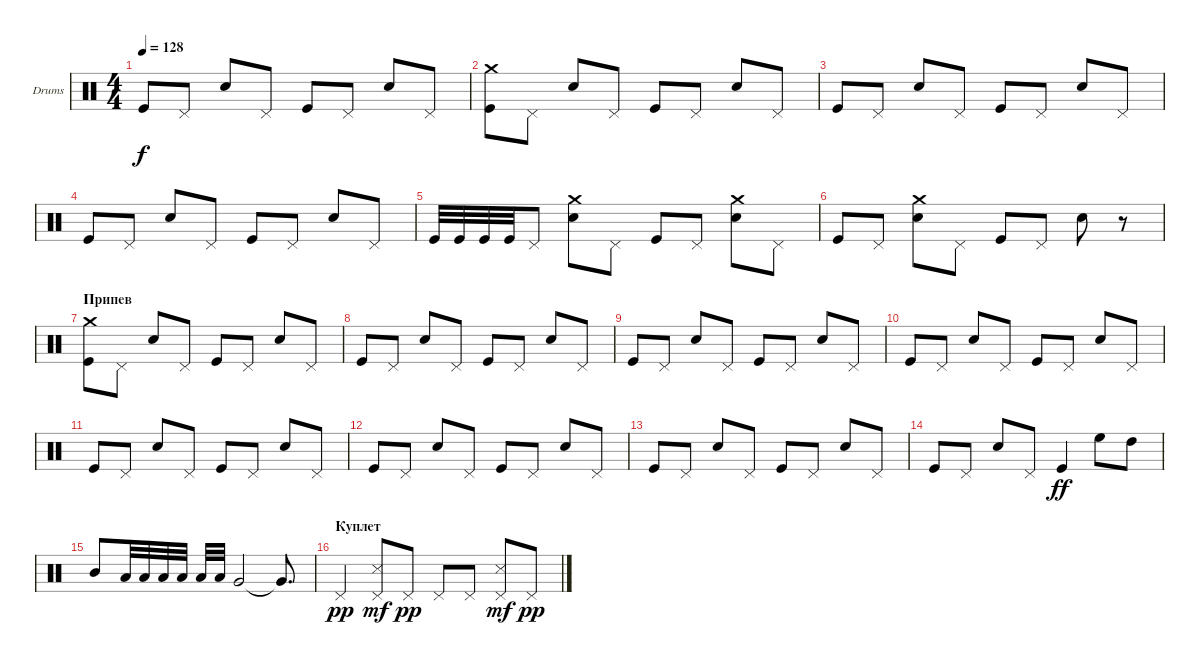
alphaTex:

\defaultSystemsLayout 4
\bracketExtendMode groupsimilarinstruments
\firstSystemTrackNameOrientation horizontal
\otherSystemsTrackNameOrientation horizontal
\track ("Е. Кулаков" "Drums") {instrument percussion}
\staff {score}
\articulation defaults
\ts (4 4)
\tempo 128
\clef neutral
\ks c "Kick (hit)".8{dy f} "Pedal Hi-Hat (hit)".8 "Snare (hit) 2".8 "Pedal Hi-Hat (hit)".8 "Kick (hit)".8 "Pedal Hi-Hat (hit)".8 "Snare (hit) 2".8 "Pedal Hi-Hat (hit)".8
|
("Kick (hit)" "Crash medium (hit)").8 "Pedal Hi-Hat (hit)".8 "Snare (hit) 2".8 "Pedal Hi-Hat (hit)".8 "Kick (hit)".8 "Pedal Hi-Hat (hit)".8 "Snare (hit) 2".8 "Pedal Hi-Hat (hit)".8 |
"Kick (hit)".8 "Pedal Hi-Hat (hit)".8 "Snare (hit) 2".8 "Pedal Hi-Hat (hit)".8 "Kick (hit)".8 "Pedal Hi-Hat (hit)".8 "Snare (hit) 2".8 "Pedal Hi-Hat (hit)".8 |
"Kick (hit)".8 "Pedal Hi-Hat (hit)".8 "Snare (hit) 2".8 "Pedal Hi-Hat (hit)".8 "Kick (hit)".8 "Pedal Hi-Hat (hit)".8 "Snare (hit) 2".8 "Pedal Hi-Hat (hit)".8 |
"Kick (hit)".32 "Kick (hit)".32 "Kick (hit)".32 "Kick (hit)".32 "Pedal Hi-Hat (hit)".8 ("Snare (hit) 2" "Crash medium (hit)").8 "Pedal Hi-Hat (hit)".8 "Kick (hit)".8 "Pedal Hi-Hat (hit)".8 ("Snare (hit) 2" "Crash medium (hit)").8 "Pedal Hi-Hat (hit)".8 |
"Kick (hit)".8 "Pedal Hi-Hat (hit)".8 ("Snare (hit) 2" "Crash medium (hit)").8 "Pedal Hi-Hat (hit)".8 "Kick (hit)".8 "Pedal Hi-Hat (hit)".8 "Snare (hit) 2".8 r.8 |
\section ("" "Припев")
("Kick (hit)" "Crash medium (hit)").8 "Pedal Hi-Hat (hit)".8 "Snare (hit) 2".8 "Pedal Hi-Hat (hit)".8 "Kick (hit)".8 "Pedal Hi-Hat (hit)".8 "Snare (hit) 2".8 "Pedal Hi-Hat (hit)".8 |
"Kick (hit)".8 "Pedal Hi-Hat (hit)".8 "Snare (hit) 2".8 "Pedal Hi-Hat (hit)".8 "Kick (hit)".8 "Pedal Hi-Hat (hit)".8 "Snare (hit) 2".8 "Pedal Hi-Hat (hit)".8 |
"Kick (hit)".8 "Pedal Hi-Hat (hit)".8 "Snare (hit) 2".8 "Pedal Hi-Hat (hit)".8 "Kick (hit)".8 "Pedal Hi-Hat (hit)".8 "Snare (hit) 2".8 "Pedal Hi-Hat (hit)".8 |
"Kick (hit)".8 "Pedal Hi-Hat (hit)".8 "Snare (hit) 2".8 "Pedal Hi-Hat (hit)".8 "Kick (hit)".8 "Pedal Hi-Hat (hit)".8 "Snare (hit) 2".8 "Pedal Hi-Hat (hit)".8 |
"Kick (hit)".8 "Pedal Hi-Hat (hit)".8 "Snare (hit) 2".8 "Pedal Hi-Hat (hit)".8 "Kick (hit)".8 "Pedal Hi-Hat (hit)".8 "Snare (hit) 2".8 "Pedal Hi-Hat (hit)".8 |
"Kick (hit)".8 "Pedal Hi-Hat (hit)".8 "Snare (hit) 2".8 "Pedal Hi-Hat (hit)".8 "Kick (hit)".8 "Pedal Hi-Hat (hit)".8 "Snare (hit) 2".8 "Pedal Hi-Hat (hit)".8 |
"Kick (hit)".8 "Pedal Hi-Hat (hit)".8 "Snare (hit) 2".8 "Pedal Hi-Hat (hit)".8 "Kick (hit)".8 "Pedal Hi-Hat (hit)".8 "Snare (hit) 2".8 "Pedal Hi-Hat (hit)".8 |
"Kick (hit)".8 "Pedal Hi-Hat (hit)".8 "Snare (hit) 2".8 "Pedal Hi-Hat (hit)".8 "Kick (hit)".4{dy ff} "High Floor Tom (hit)".8 "High Tom (hit)".8 |
"Mid Tom (hit)".8 "Low Tom (hit)".32 "Low Tom (hit)".32 "Low Tom (hit)".32 "Low Tom (hit)".32 "Low Tom (hit)".32 "Low Tom (hit)".32 "Very Low Tom (hit)".2 "Very Low Tom (hit)"{t}.8{d} |
\section ("" "Куплет")
"Pedal Hi-Hat (hit)".4{dy pp} ("Snare (side stick) 3" "Pedal Hi-Hat (hit)").8{dy mf} "Pedal Hi-Hat (hit)".8{dy pp} "Pedal Hi-Hat (hit)".8 "Pedal Hi-Hat (hit)".8 ("Snare (side stick) 3" "Pedal Hi-Hat (hit)").8{dy mf} "Pedal Hi-Hat (hit)".8{dy pp}
